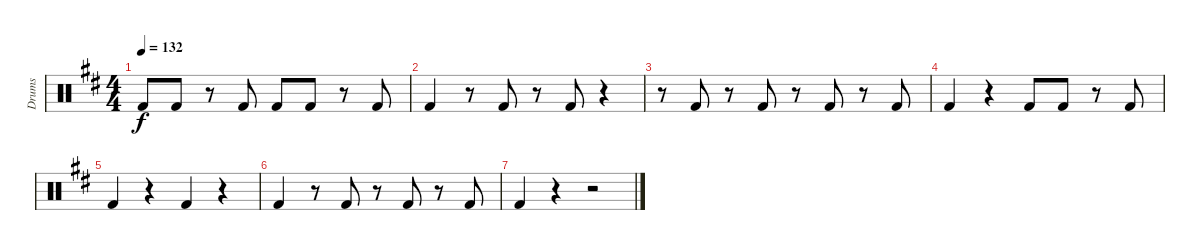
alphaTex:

\track ("Drums" "Drums") {instrument percussion}
\staff {score}
\articulation defaults
\ts (4 4)
\tempo 132
\clef neutral
\ks d "Kick (hit) 2".8{dy f} "Kick (hit) 2".8
r.8 "Kick (hit) 2".8 "Kick (hit) 2".8 "Kick (hit) 2".8 r.8 "Kick (hit) 2".8 |
"Kick (hit) 2".4 r.8 "Kick (hit) 2".8 r.8 "Kick (hit) 2".8 r.4 |
r.8 "Kick (hit) 2".8 r.8 "Kick (hit) 2".8 r.8 "Kick (hit) 2".8 r.8 "Kick (hit) 2".8 |
"Kick (hit) 2".4 r.4 "Kick (hit) 2".8 "Kick (hit) 2".8 r.8 "Kick (hit) 2".8 |
"Kick (hit) 2".4 r.4 "Kick (hit) 2".4 r.4 |
"Kick (hit) 2".4 r.8 "Kick (hit) 2".8 r.8 "Kick (hit) 2".8 r.8 "Kick (hit) 2".8 |
"Kick (hit) 2".4 r.4 r.2
